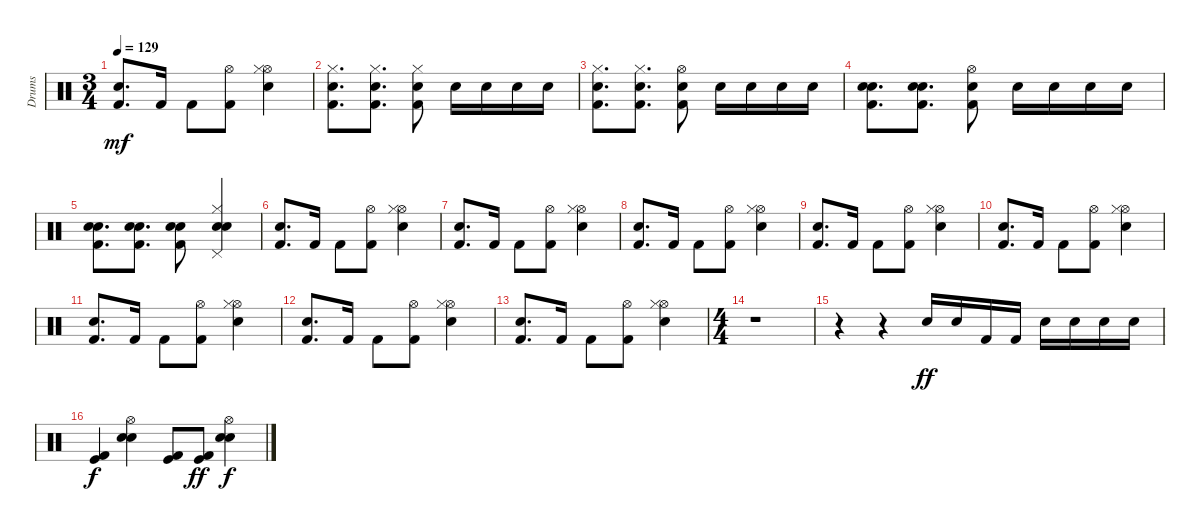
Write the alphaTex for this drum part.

\track ("Drums" "Drums") {instrument percussion}
\staff {score}
\articulation defaults
\ts (3 4)
\tempo 129
\clef neutral
\ks c
("Snare (hit) 2" "Kick (hit) 2").8{d dy mf} "Kick (hit) 2".16 "Kick (hit) 2".8 ("Hi-Hat (open)" "Kick (hit) 2").8 ("Electric Snare (hit)" "Hi-Hat (open)" "Hi-Hat (closed)").4 |
("Kick (hit) 2" "Snare (hit) 2" "Hi-Hat (closed)").8{d} ("Kick (hit) 2" "Snare (hit) 2" "Hi-Hat (closed)").8{d} ("Kick (hit) 2" "Snare (hit) 2" "Hi-Hat (closed)").8 "Snare (hit) 2".16 "Snare (hit) 2".16 "Snare (hit) 2".16 "Snare (hit) 2".16 |
("Kick (hit) 2" "Snare (hit) 2" "Hi-Hat (closed)").8{d} ("Kick (hit) 2" "Snare (hit) 2" "Hi-Hat (closed)").8{d} ("Kick (hit) 2" "Snare (hit) 2" "Hi-Hat (open)").8 "Snare (hit) 2".16 "Snare (hit) 2".16 "Snare (hit) 2".16 "Snare (hit) 2".16 |
("Kick (hit) 2" "Snare (hit) 2" "Electric Snare (hit)").8{d} ("Kick (hit) 2" "Snare (hit) 2" "Electric Snare (hit)").8{d} ("Kick (hit) 2" "Snare (hit) 2" "Hi-Hat (open)").8 "Snare (hit) 2".16 "Snare (hit) 2".16 "Snare (hit) 2".16 "Snare (hit) 2".16 |
("Kick (hit) 2" "Snare (hit) 2" "Electric Snare (hit)").8{d} ("Kick (hit) 2" "Snare (hit) 2" "Electric Snare (hit)").8{d} ("Kick (hit) 2" "Snare (hit) 2" "Electric Snare (hit)").8 ("Electric Snare (hit)" "Snare (hit) 2" "Hi-Hat (closed)" "Pedal Hi-Hat (hit)").4 |
("Snare (hit) 2" "Kick (hit) 2").8{d} "Kick (hit) 2".16 "Kick (hit) 2".8 ("Hi-Hat (open)" "Kick (hit) 2").8 ("Electric Snare (hit)" "Hi-Hat (open)" "Hi-Hat (closed)").4 |
("Snare (hit) 2" "Kick (hit) 2").8{d} "Kick (hit) 2".16 "Kick (hit) 2".8 ("Hi-Hat (open)" "Kick (hit) 2").8 ("Electric Snare (hit)" "Hi-Hat (open)" "Hi-Hat (closed)").4 |
("Snare (hit) 2" "Kick (hit) 2").8{d} "Kick (hit) 2".16 "Kick (hit) 2".8 ("Hi-Hat (open)" "Kick (hit) 2").8 ("Electric Snare (hit)" "Hi-Hat (open)" "Hi-Hat (closed)").4 |
("Snare (hit) 2" "Kick (hit) 2").8{d} "Kick (hit) 2".16 "Kick (hit) 2".8 ("Hi-Hat (open)" "Kick (hit) 2").8 ("Electric Snare (hit)" "Hi-Hat (open)" "Hi-Hat (closed)").4 |
("Snare (hit) 2" "Kick (hit) 2").8{d} "Kick (hit) 2".16 "Kick (hit) 2".8 ("Hi-Hat (open)" "Kick (hit) 2").8 ("Electric Snare (hit)" "Hi-Hat (open)" "Hi-Hat (closed)").4 |
("Snare (hit) 2" "Kick (hit) 2").8{d} "Kick (hit) 2".16 "Kick (hit) 2".8 ("Hi-Hat (open)" "Kick (hit) 2").8 ("Electric Snare (hit)" "Hi-Hat (open)" "Hi-Hat (closed)").4 |
("Snare (hit) 2" "Kick (hit) 2").8{d} "Kick (hit) 2".16 "Kick (hit) 2".8 ("Hi-Hat (open)" "Kick (hit) 2").8 ("Electric Snare (hit)" "Hi-Hat (open)" "Hi-Hat (closed)").4 |
("Snare (hit) 2" "Kick (hit) 2").8{d} "Kick (hit) 2".16 "Kick (hit) 2".8 ("Hi-Hat (open)" "Kick (hit) 2").8 ("Electric Snare (hit)" "Hi-Hat (open)" "Hi-Hat (closed)").4 |
\ts (4 4)
r.1 |
r.4 r.4 "Snare (hit) 2".16{dy ff} "Snare (hit) 2".16 "Kick (hit) 2".16 "Kick (hit) 2".16 "Snare (hit) 2".16 "Snare (hit) 2".16 "Snare (hit) 2".16 "Snare (hit) 2".16 |
("Kick (hit)" "Kick (hit) 2").4{dy f} ("Electric Snare (hit)" "Hi-Hat (open)" "Snare (hit) 2").4 ("Kick (hit)" "Kick (hit) 2").8 ("Kick (hit) 2" "Kick (hit)").8{dy ff} ("Electric Snare (hit)" "Hi-Hat (open)" "Snare (hit) 2").4{dy f}
